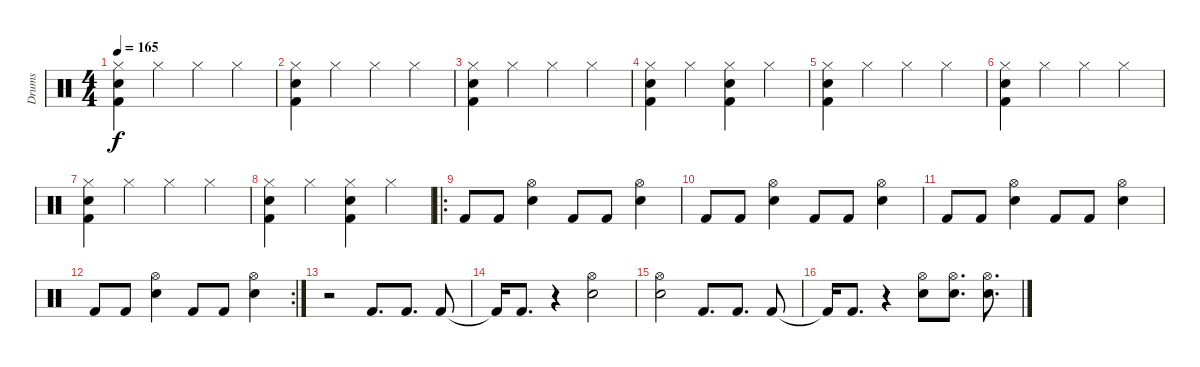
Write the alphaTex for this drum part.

\track ("Drums" "Drums") {instrument percussion}
\staff {score}
\articulation defaults
\ts (4 4)
\tempo 165
\clef neutral
\ks c
("Kick (hit) 2" "Snare (hit) 2" "Hi-Hat (closed)").4{dy f} "Hi-Hat (closed)".4 "Hi-Hat (closed)".4 "Hi-Hat (closed)".4 |
("Kick (hit) 2" "Snare (hit) 2" "Hi-Hat (closed)").4 "Hi-Hat (closed)".4 "Hi-Hat (closed)".4 "Hi-Hat (closed)".4 |
("Kick (hit) 2" "Snare (hit) 2" "Hi-Hat (closed)").4 "Hi-Hat (closed)".4 "Hi-Hat (closed)".4 "Hi-Hat (closed)".4 |
("Kick (hit) 2" "Snare (hit) 2" "Hi-Hat (closed)").4 "Hi-Hat (closed)".4 ("Kick (hit) 2" "Snare (hit) 2" "Hi-Hat (closed)").4 "Hi-Hat (closed)".4 |
("Kick (hit) 2" "Snare (hit) 2" "Hi-Hat (closed)").4 "Hi-Hat (closed)".4 "Hi-Hat (closed)".4 "Hi-Hat (closed)".4 |
("Kick (hit) 2" "Snare (hit) 2" "Hi-Hat (closed)").4 "Hi-Hat (closed)".4 "Hi-Hat (closed)".4 "Hi-Hat (closed)".4 |
("Kick (hit) 2" "Snare (hit) 2" "Hi-Hat (closed)").4 "Hi-Hat (closed)".4 "Hi-Hat (closed)".4 "Hi-Hat (closed)".4 |
("Kick (hit) 2" "Snare (hit) 2" "Hi-Hat (closed)").4 "Hi-Hat (closed)".4 ("Kick (hit) 2" "Snare (hit) 2" "Hi-Hat (closed)").4 "Hi-Hat (closed)".4 |
\ro "Kick (hit) 2".8 "Kick (hit) 2".8
("Snare (hit) 2" "Hi-Hat (open)").4 "Kick (hit) 2".8 "Kick (hit) 2".8 ("Snare (hit) 2" "Hi-Hat (open)").4 |
"Kick (hit) 2".8 "Kick (hit) 2".8 ("Snare (hit) 2" "Hi-Hat (open)").4 "Kick (hit) 2".8 "Kick (hit) 2".8 ("Snare (hit) 2" "Hi-Hat (open)").4 |
"Kick (hit) 2".8 "Kick (hit) 2".8 ("Snare (hit) 2" "Hi-Hat (open)").4 "Kick (hit) 2".8 "Kick (hit) 2".8 ("Snare (hit) 2" "Hi-Hat (open)").4 |
\rc 2 "Kick (hit) 2".8 "Kick (hit) 2".8
("Snare (hit) 2" "Hi-Hat (open)").4 "Kick (hit) 2".8 "Kick (hit) 2".8 ("Snare (hit) 2" "Hi-Hat (open)").4 |
r.2 "Kick (hit) 2".8{d} "Kick (hit) 2".8{d} "Kick (hit) 2".8 |
"Kick (hit) 2"{t}.16 "Kick (hit) 2".8{d} r.4 ("Snare (hit) 2" "Hi-Hat (open)").2 |
("Snare (hit) 2" "Hi-Hat (open)").2 "Kick (hit) 2".8{d} "Kick (hit) 2".8{d} "Kick (hit) 2".8 |
"Kick (hit) 2"{t}.16 "Kick (hit) 2".8{d} r.4 ("Snare (hit) 2" "Hi-Hat (open)").8 ("Snare (hit) 2" "Hi-Hat (open)").8{d} ("Snare (hit) 2" "Hi-Hat (open)").8{d}
